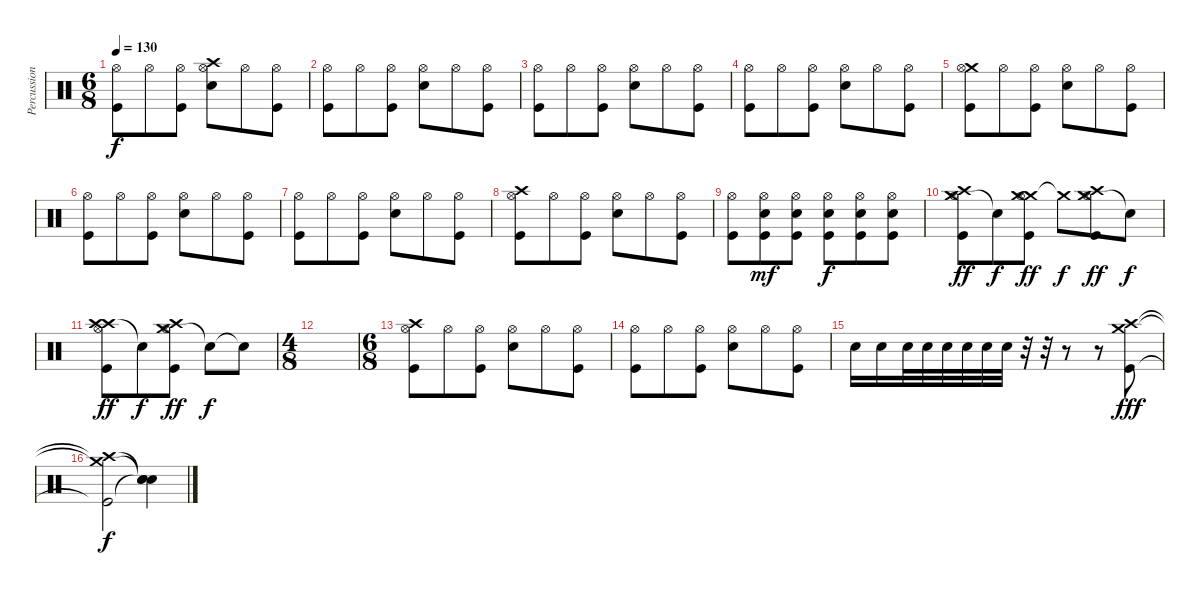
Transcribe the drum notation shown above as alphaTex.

\track ("Percussion" "Percussion") {instrument percussion}
\staff {score}
\articulation defaults
\ts (6 8)
\tempo 130
\clef neutral
\ks c
("Hi-Hat (open)" "Kick (hit)").8{dy f} "Hi-Hat (open)".8 ("Hi-Hat (open)" "Kick (hit)").8 ("Crash high (hit)" "Hi-Hat (open)" "Snare (hit) 2").8 "Hi-Hat (open)".8 ("Hi-Hat (open)" "Kick (hit)").8 |
("Hi-Hat (open)" "Kick (hit)").8 "Hi-Hat (open)".8 ("Hi-Hat (open)" "Kick (hit)").8 ("Hi-Hat (open)" "Snare (hit) 2").8 "Hi-Hat (open)".8 ("Hi-Hat (open)" "Kick (hit)").8 |
("Hi-Hat (open)" "Kick (hit)").8 "Hi-Hat (open)".8 ("Hi-Hat (open)" "Kick (hit)").8 ("Hi-Hat (open)" "Snare (hit) 2").8 "Hi-Hat (open)".8 ("Hi-Hat (open)" "Kick (hit)").8 |
("Hi-Hat (open)" "Kick (hit)").8 "Hi-Hat (open)".8 ("Hi-Hat (open)" "Kick (hit)").8 ("Hi-Hat (open)" "Snare (hit) 2").8 "Hi-Hat (open)".8 ("Hi-Hat (open)" "Kick (hit)").8 |
("Crash medium (hit)" "Hi-Hat (open)" "Kick (hit)").8 "Hi-Hat (open)".8 ("Hi-Hat (open)" "Kick (hit)").8 ("Hi-Hat (open)" "Snare (hit) 2").8 "Hi-Hat (open)".8 ("Hi-Hat (open)" "Kick (hit)").8 |
("Hi-Hat (open)" "Kick (hit)").8 "Hi-Hat (open)".8 ("Hi-Hat (open)" "Kick (hit)").8 ("Hi-Hat (open)" "Snare (hit) 2").8 "Hi-Hat (open)".8 ("Hi-Hat (open)" "Kick (hit)").8 |
("Hi-Hat (open)" "Kick (hit)").8 "Hi-Hat (open)".8 ("Hi-Hat (open)" "Kick (hit)").8 ("Hi-Hat (open)" "Snare (hit) 2").8 "Hi-Hat (open)".8 ("Hi-Hat (open)" "Kick (hit)").8 |
("Crash high (hit)" "Hi-Hat (open)" "Kick (hit)").8 "Hi-Hat (open)".8 ("Hi-Hat (open)" "Kick (hit)").8 ("Hi-Hat (open)" "Snare (hit) 2").8 "Hi-Hat (open)".8 ("Hi-Hat (open)" "Kick (hit)").8 |
("Hi-Hat (open)" "Kick (hit)").8 ("Hi-Hat (open)" "Snare (hit) 2" "Kick (hit)").8{dy mf} ("Hi-Hat (open)" "Snare (hit) 2" "Kick (hit)").8 ("Hi-Hat (open)" "Snare (hit) 2" "Kick (hit)").8{dy f} ("Hi-Hat (open)" "Snare (hit) 2" "Kick (hit)").8 ("Hi-Hat (open)" "Snare (hit) 2" "Kick (hit)").8 |
("Crash medium (hit)" "Crash high (hit)" "Hi-Hat (open)" "Kick (hit)").8{dy ff} "Snare (hit)"{t}.8{dy f} ("Crash medium (hit)" "Crash medium (hit)" "Hi-Hat (open)" "Kick (hit)").8{dy ff} "Crash medium (hit)"{t}.8{dy f} ("Crash medium (hit)" "Crash high (hit)" "Hi-Hat (open)" "Kick (hit)").8{dy ff} "Snare (hit)"{t}.8{dy f} |
("Crash high (hit)" "Crash high (hit)" "Hi-Hat (open)" "Kick (hit)").8{dy ff} "Snare (hit)"{t}.8{dy f} ("Crash medium (hit)" "Crash high (hit)" "Hi-Hat (open)" "Kick (hit)").8{dy ff} "Snare (hit)"{t}.8{dy f} "Snare (hit)"{t}.8 |
\ts (4 8)
|
\ts (6 8)
("Crash high (hit)" "Hi-Hat (open)" "Kick (hit)").8 "Hi-Hat (open)".8 ("Hi-Hat (open)" "Kick (hit)").8 ("Hi-Hat (open)" "Snare (hit) 2").8 "Hi-Hat (open)".8 ("Hi-Hat (open)" "Kick (hit)").8 |
("Hi-Hat (open)" "Kick (hit)").8 "Hi-Hat (open)".8 ("Hi-Hat (open)" "Kick (hit)").8 ("Hi-Hat (open)" "Snare (hit) 2").8 "Hi-Hat (open)".8 ("Hi-Hat (open)" "Kick (hit)").8 |
"Snare (hit) 2".16 "Snare (hit) 2".16 "Snare (hit) 2".32 "Snare (hit) 2".32 "Snare (hit) 2".32 "Snare (hit) 2".32 "Snare (hit) 2".32 "Snare (hit) 2".32 r.32 r.32 r.8 r.8 ("Crash medium (hit)" "Crash high (hit)" "Kick (hit)").8{dy fff} |
("Crash medium (hit)"{t} "Crash high (hit)"{t} "Kick (hit)"{t}).2{dy f} ("Snare (hit)"{t} "Snare (hit)"{t} "Snare (hit)"{t}).4
